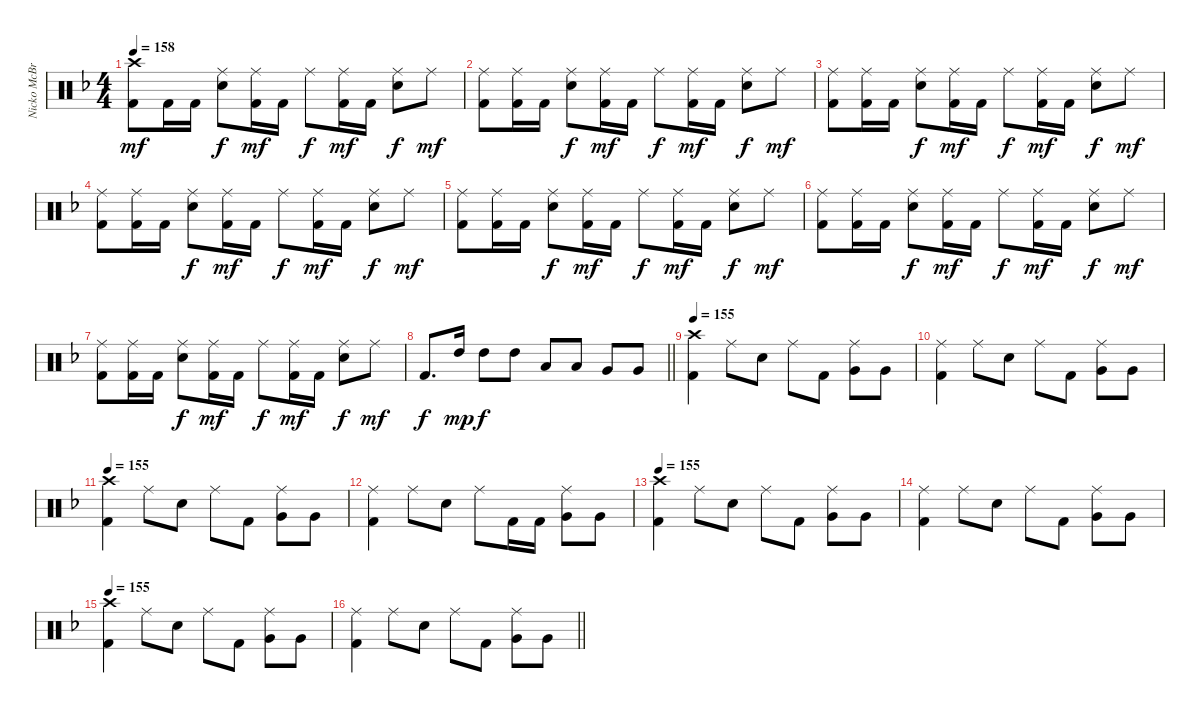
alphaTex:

\track ("Nicko McBrain" "Nicko McBr") {instrument percussion}
\staff {score}
\articulation defaults
\ts (4 4)
\tempo 158
\clef neutral
\ks f
("Crash high (hit)" "Kick (hit) 2").8{dy mf} "Kick (hit) 2".16 "Kick (hit) 2".16 ("Ride (middle)" "Electric Snare (hit)").8{dy f} ("Ride (middle)" "Kick (hit) 2").16{dy mf} "Kick (hit) 2".16 "Ride (middle)".8{dy f} ("Ride (middle)" "Kick (hit) 2").16{dy mf} "Kick (hit) 2".16 ("Ride (middle)" "Electric Snare (hit)").8{dy f} "Ride (middle)".8{dy mf} |
("Ride (middle)" "Kick (hit) 2").8 ("Ride (middle)" "Kick (hit) 2").16 "Kick (hit) 2".16 ("Ride (middle)" "Electric Snare (hit)").8{dy f} ("Ride (middle)" "Kick (hit) 2").16{dy mf} "Kick (hit) 2".16 "Ride (middle)".8{dy f} ("Ride (middle)" "Kick (hit) 2").16{dy mf} "Kick (hit) 2".16 ("Ride (middle)" "Electric Snare (hit)").8{dy f} "Ride (middle)".8{dy mf} |
("Ride (middle)" "Kick (hit) 2").8 ("Ride (middle)" "Kick (hit) 2").16 "Kick (hit) 2".16 ("Ride (middle)" "Electric Snare (hit)").8{dy f} ("Ride (middle)" "Kick (hit) 2").16{dy mf} "Kick (hit) 2".16 "Ride (middle)".8{dy f} ("Ride (middle)" "Kick (hit) 2").16{dy mf} "Kick (hit) 2".16 ("Ride (middle)" "Electric Snare (hit)").8{dy f} "Ride (middle)".8{dy mf} |
("Ride (middle)" "Kick (hit) 2").8 ("Ride (middle)" "Kick (hit) 2").16 "Kick (hit) 2".16 ("Ride (middle)" "Electric Snare (hit)").8{dy f} ("Ride (middle)" "Kick (hit) 2").16{dy mf} "Kick (hit) 2".16 "Ride (middle)".8{dy f} ("Ride (middle)" "Kick (hit) 2").16{dy mf} "Kick (hit) 2".16 ("Ride (middle)" "Electric Snare (hit)").8{dy f} "Ride (middle)".8{dy mf} |
("Ride (middle)" "Kick (hit) 2").8 ("Ride (middle)" "Kick (hit) 2").16 "Kick (hit) 2".16 ("Ride (middle)" "Electric Snare (hit)").8{dy f} ("Ride (middle)" "Kick (hit) 2").16{dy mf} "Kick (hit) 2".16 "Ride (middle)".8{dy f} ("Ride (middle)" "Kick (hit) 2").16{dy mf} "Kick (hit) 2".16 ("Ride (middle)" "Electric Snare (hit)").8{dy f} "Ride (middle)".8{dy mf} |
("Ride (middle)" "Kick (hit) 2").8 ("Ride (middle)" "Kick (hit) 2").16 "Kick (hit) 2".16 ("Ride (middle)" "Electric Snare (hit)").8{dy f} ("Ride (middle)" "Kick (hit) 2").16{dy mf} "Kick (hit) 2".16 "Ride (middle)".8{dy f} ("Ride (middle)" "Kick (hit) 2").16{dy mf} "Kick (hit) 2".16 ("Ride (middle)" "Electric Snare (hit)").8{dy f} "Ride (middle)".8{dy mf} |
("Ride (middle)" "Kick (hit) 2").8 ("Ride (middle)" "Kick (hit) 2").16 "Kick (hit) 2".16 ("Ride (middle)" "Electric Snare (hit)").8{dy f} ("Ride (middle)" "Kick (hit) 2").16{dy mf} "Kick (hit) 2".16 "Ride (middle)".8{dy f} ("Ride (middle)" "Kick (hit) 2").16{dy mf} "Kick (hit) 2".16 ("Ride (middle)" "Electric Snare (hit)").8{dy f} "Ride (middle)".8{dy mf} |
\barLineRight lightlight "Kick (hit) 2".8{d dy f} "High Tom (hit)".16{dy mp} "High Tom (hit)".8{dy f} "High Tom (hit)".8 "Low Tom (hit)".8 "Low Tom (hit)".8 "Very Low Tom (hit)".8 "Very Low Tom (hit)".8
|
\tempo 155
("Crash high (hit)" "Kick (hit) 2").4 "Ride (middle)".8 "Electric Snare (hit)".8 "Ride (middle)".8 "Kick (hit) 2".8 ("Ride (middle)" "Very Low Tom (hit)").8 "Very Low Tom (hit)".8 |
("Ride (middle)" "Kick (hit) 2").4 "Ride (middle)".8 "Electric Snare (hit)".8 "Ride (middle)".8 "Kick (hit) 2".8 ("Ride (middle)" "Very Low Tom (hit)").8 "Very Low Tom (hit)".8 |
\tempo 155
("Crash high (hit)" "Kick (hit) 2").4 "Ride (middle)".8 "Electric Snare (hit)".8 "Ride (middle)".8 "Kick (hit) 2".8 ("Ride (middle)" "Very Low Tom (hit)").8 "Very Low Tom (hit)".8 |
("Ride (middle)" "Kick (hit) 2").4 "Ride (middle)".8 "Electric Snare (hit)".8 "Ride (middle)".8 "Kick (hit) 2".16 "Kick (hit) 2".16 ("Ride (middle)" "Very Low Tom (hit)").8 "Very Low Tom (hit)".8 |
\tempo 155
("Crash high (hit)" "Kick (hit) 2").4 "Ride (middle)".8 "Electric Snare (hit)".8 "Ride (middle)".8 "Kick (hit) 2".8 ("Ride (middle)" "Very Low Tom (hit)").8 "Very Low Tom (hit)".8 |
("Ride (middle)" "Kick (hit) 2").4 "Ride (middle)".8 "Electric Snare (hit)".8 "Ride (middle)".8 "Kick (hit) 2".8 ("Ride (middle)" "Very Low Tom (hit)").8 "Very Low Tom (hit)".8 |
\tempo 155
("Crash high (hit)" "Kick (hit) 2").4 "Ride (middle)".8 "Electric Snare (hit)".8 "Ride (middle)".8 "Kick (hit) 2".8 ("Ride (middle)" "Very Low Tom (hit)").8 "Very Low Tom (hit)".8 |
\barLineRight lightlight
("Ride (middle)" "Kick (hit) 2").4 "Ride (middle)".8 "Electric Snare (hit)".8 "Ride (middle)".8 "Kick (hit) 2".8 ("Ride (middle)" "Very Low Tom (hit)").8 "Very Low Tom (hit)".8
